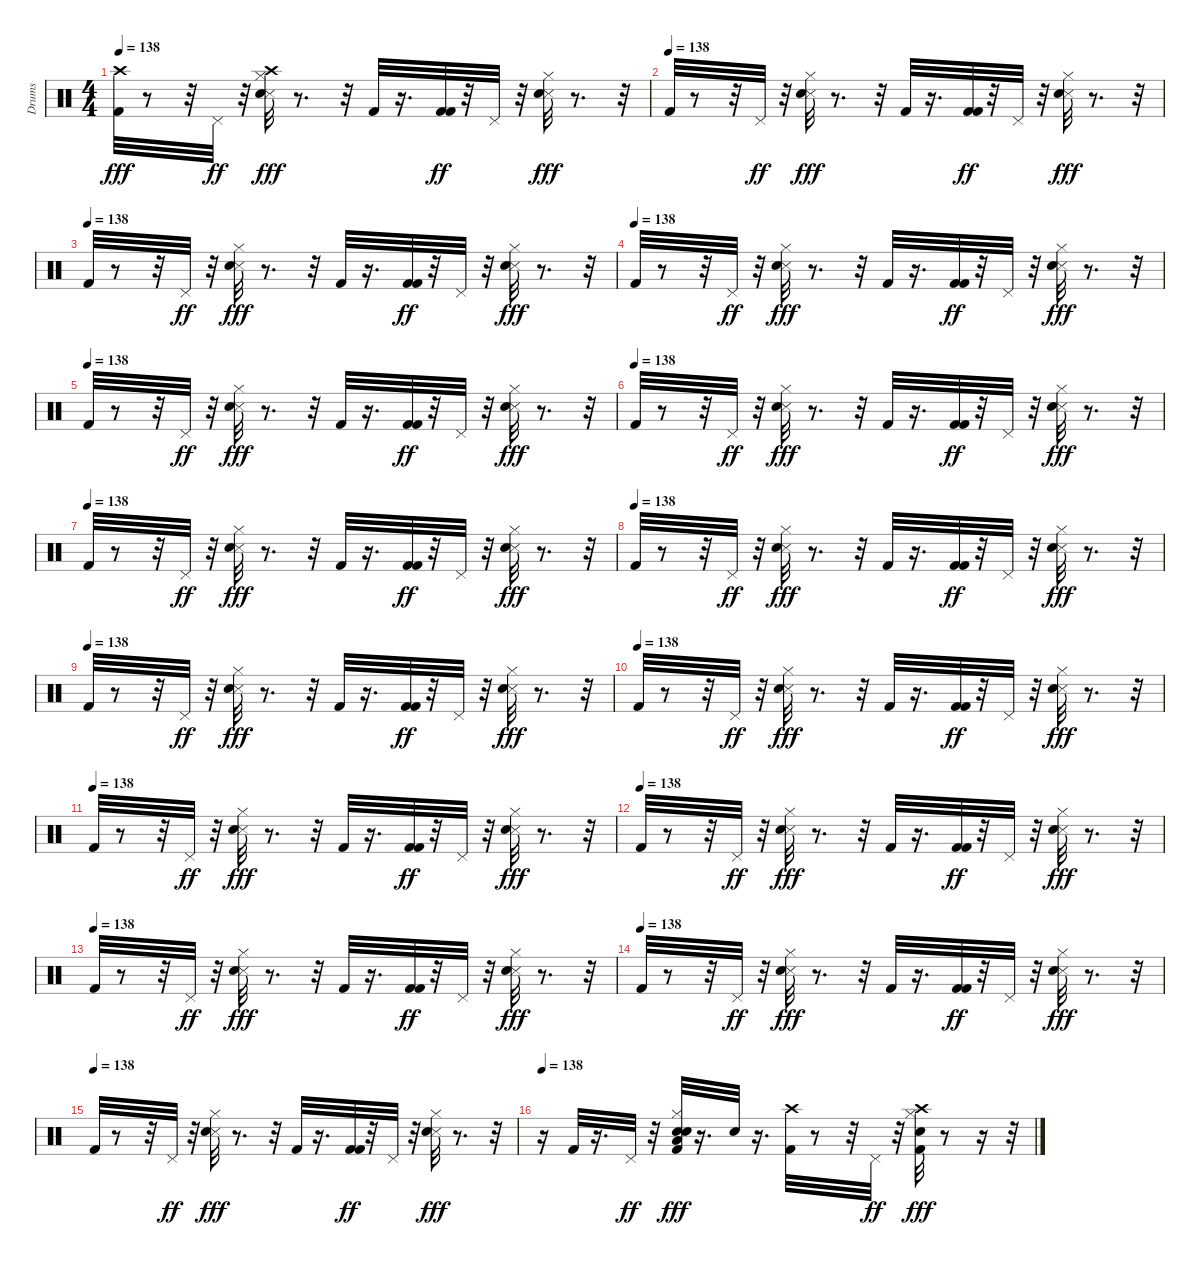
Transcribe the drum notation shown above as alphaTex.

\track ("Drums" "Drums") {instrument percussion}
\staff {score}
\articulation defaults
\ts (4 4)
\tempo 138
\clef neutral
\ks c
("Kick (hit) 2" "Crash high (hit)").32{dy fff volume 12} r.8 r.32 "Pedal Hi-Hat (hit)".32{dy ff} r.32 ("Snare (side stick) 3" "Snare (hit) 2" "Hi-Hat (closed)" "Crash high (hit)").32{dy fff} r.8{d} r.32 "Kick (hit) 2".32 r.16{d} ("Kick (hit) 2" "Kick (hit) 2").32{dy ff} r.32 "Pedal Hi-Hat (hit)".32 r.32 ("Snare (side stick) 3" "Snare (hit) 2" "Hi-Hat (closed)").32{dy fff} r.8{d} r.32 |
\tempo (138)
"Kick (hit) 2".32{volume 12} r.8 r.32 "Pedal Hi-Hat (hit)".32{dy ff} r.32 ("Snare (side stick) 3" "Snare (hit) 2" "Hi-Hat (closed)").32{dy fff} r.8{d} r.32 "Kick (hit) 2".32 r.16{d} ("Kick (hit) 2" "Kick (hit) 2").32{dy ff} r.32 "Pedal Hi-Hat (hit)".32 r.32 ("Snare (side stick) 3" "Snare (hit) 2" "Hi-Hat (closed)").32{dy fff} r.8{d} r.32 |
\tempo (138)
"Kick (hit) 2".32{volume 12} r.8 r.32 "Pedal Hi-Hat (hit)".32{dy ff} r.32 ("Snare (side stick) 3" "Snare (hit) 2" "Hi-Hat (closed)").32{dy fff} r.8{d} r.32 "Kick (hit) 2".32 r.16{d} ("Kick (hit) 2" "Kick (hit) 2").32{dy ff} r.32 "Pedal Hi-Hat (hit)".32 r.32 ("Snare (side stick) 3" "Snare (hit) 2" "Hi-Hat (closed)").32{dy fff} r.8{d} r.32 |
\tempo (138)
"Kick (hit) 2".32{volume 12} r.8 r.32 "Pedal Hi-Hat (hit)".32{dy ff} r.32 ("Snare (side stick) 3" "Snare (hit) 2" "Hi-Hat (closed)").32{dy fff} r.8{d} r.32 "Kick (hit) 2".32 r.16{d} ("Kick (hit) 2" "Kick (hit) 2").32{dy ff} r.32 "Pedal Hi-Hat (hit)".32 r.32 ("Snare (side stick) 3" "Snare (hit) 2" "Hi-Hat (closed)").32{dy fff} r.8{d} r.32 |
\tempo (138)
"Kick (hit) 2".32{volume 12} r.8 r.32 "Pedal Hi-Hat (hit)".32{dy ff} r.32 ("Snare (side stick) 3" "Snare (hit) 2" "Hi-Hat (closed)").32{dy fff} r.8{d} r.32 "Kick (hit) 2".32 r.16{d} ("Kick (hit) 2" "Kick (hit) 2").32{dy ff} r.32 "Pedal Hi-Hat (hit)".32 r.32 ("Snare (side stick) 3" "Snare (hit) 2" "Hi-Hat (closed)").32{dy fff} r.8{d} r.32 |
\tempo (138)
"Kick (hit) 2".32{volume 12} r.8 r.32 "Pedal Hi-Hat (hit)".32{dy ff} r.32 ("Snare (side stick) 3" "Snare (hit) 2" "Hi-Hat (closed)").32{dy fff} r.8{d} r.32 "Kick (hit) 2".32 r.16{d} ("Kick (hit) 2" "Kick (hit) 2").32{dy ff} r.32 "Pedal Hi-Hat (hit)".32 r.32 ("Snare (side stick) 3" "Snare (hit) 2" "Hi-Hat (closed)").32{dy fff} r.8{d} r.32 |
\tempo (138)
"Kick (hit) 2".32{volume 12} r.8 r.32 "Pedal Hi-Hat (hit)".32{dy ff} r.32 ("Snare (side stick) 3" "Snare (hit) 2" "Hi-Hat (closed)").32{dy fff} r.8{d} r.32 "Kick (hit) 2".32 r.16{d} ("Kick (hit) 2" "Kick (hit) 2").32{dy ff} r.32 "Pedal Hi-Hat (hit)".32 r.32 ("Snare (side stick) 3" "Snare (hit) 2" "Hi-Hat (closed)").32{dy fff} r.8{d} r.32 |
\tempo (138)
"Kick (hit) 2".32{volume 12} r.8 r.32 "Pedal Hi-Hat (hit)".32{dy ff} r.32 ("Snare (side stick) 3" "Snare (hit) 2" "Hi-Hat (closed)").32{dy fff} r.8{d} r.32 "Kick (hit) 2".32 r.16{d} ("Kick (hit) 2" "Kick (hit) 2").32{dy ff} r.32 "Pedal Hi-Hat (hit)".32 r.32 ("Snare (side stick) 3" "Snare (hit) 2" "Hi-Hat (closed)").32{dy fff} r.8{d} r.32 |
\tempo (138)
"Kick (hit) 2".32{volume 12} r.8 r.32 "Pedal Hi-Hat (hit)".32{dy ff} r.32 ("Snare (side stick) 3" "Snare (hit) 2" "Hi-Hat (closed)").32{dy fff} r.8{d} r.32 "Kick (hit) 2".32 r.16{d} ("Kick (hit) 2" "Kick (hit) 2").32{dy ff} r.32 "Pedal Hi-Hat (hit)".32 r.32 ("Snare (side stick) 3" "Snare (hit) 2" "Hi-Hat (closed)").32{dy fff} r.8{d} r.32 |
\tempo (138)
"Kick (hit) 2".32{volume 12} r.8 r.32 "Pedal Hi-Hat (hit)".32{dy ff} r.32 ("Snare (side stick) 3" "Snare (hit) 2" "Hi-Hat (closed)").32{dy fff} r.8{d} r.32 "Kick (hit) 2".32 r.16{d} ("Kick (hit) 2" "Kick (hit) 2").32{dy ff} r.32 "Pedal Hi-Hat (hit)".32 r.32 ("Snare (side stick) 3" "Snare (hit) 2" "Hi-Hat (closed)").32{dy fff} r.8{d} r.32 |
\tempo (138)
"Kick (hit) 2".32{volume 12} r.8 r.32 "Pedal Hi-Hat (hit)".32{dy ff} r.32 ("Snare (side stick) 3" "Snare (hit) 2" "Hi-Hat (closed)").32{dy fff} r.8{d} r.32 "Kick (hit) 2".32 r.16{d} ("Kick (hit) 2" "Kick (hit) 2").32{dy ff} r.32 "Pedal Hi-Hat (hit)".32 r.32 ("Snare (side stick) 3" "Snare (hit) 2" "Hi-Hat (closed)").32{dy fff} r.8{d} r.32 |
\tempo (138)
"Kick (hit) 2".32{volume 12} r.8 r.32 "Pedal Hi-Hat (hit)".32{dy ff} r.32 ("Snare (side stick) 3" "Snare (hit) 2" "Hi-Hat (closed)").32{dy fff} r.8{d} r.32 "Kick (hit) 2".32 r.16{d} ("Kick (hit) 2" "Kick (hit) 2").32{dy ff} r.32 "Pedal Hi-Hat (hit)".32 r.32 ("Snare (side stick) 3" "Snare (hit) 2" "Hi-Hat (closed)").32{dy fff} r.8{d} r.32 |
\tempo (138)
"Kick (hit) 2".32{volume 12} r.8 r.32 "Pedal Hi-Hat (hit)".32{dy ff} r.32 ("Snare (side stick) 3" "Snare (hit) 2" "Hi-Hat (closed)").32{dy fff} r.8{d} r.32 "Kick (hit) 2".32 r.16{d} ("Kick (hit) 2" "Kick (hit) 2").32{dy ff} r.32 "Pedal Hi-Hat (hit)".32 r.32 ("Snare (side stick) 3" "Snare (hit) 2" "Hi-Hat (closed)").32{dy fff} r.8{d} r.32 |
\tempo (138)
"Kick (hit) 2".32{volume 12} r.8 r.32 "Pedal Hi-Hat (hit)".32{dy ff} r.32 ("Snare (side stick) 3" "Snare (hit) 2" "Hi-Hat (closed)").32{dy fff} r.8{d} r.32 "Kick (hit) 2".32 r.16{d} ("Kick (hit) 2" "Kick (hit) 2").32{dy ff} r.32 "Pedal Hi-Hat (hit)".32 r.32 ("Snare (side stick) 3" "Snare (hit) 2" "Hi-Hat (closed)").32{dy fff} r.8{d} r.32 |
\tempo (138)
"Kick (hit) 2".32{volume 12} r.8 r.32 "Pedal Hi-Hat (hit)".32{dy ff} r.32 ("Snare (side stick) 3" "Snare (hit) 2" "Hi-Hat (closed)").32{dy fff} r.8{d} r.32 "Kick (hit) 2".32 r.16{d} ("Kick (hit) 2" "Kick (hit) 2").32{dy ff} r.32 "Pedal Hi-Hat (hit)".32 r.32 ("Snare (side stick) 3" "Snare (hit) 2" "Hi-Hat (closed)").32{dy fff} r.8{d} r.32 |
\tempo 138
r.16 "Kick (hit) 2".32 r.16{d} "Pedal Hi-Hat (hit)".32{dy ff} r.32 ("Kick (hit) 2" "Snare (hit) 2" "Hand Clap (hit)" "Low Floor Tom (hit)" "Hi-Hat (closed)").32{dy fff} r.16{d} "Hand Clap (hit)".32 r.16{d} ("Kick (hit) 2" "Crash high (hit)").32 r.8 r.32 "Pedal Hi-Hat (hit)".32{dy ff} r.32 ("Kick (hit) 2" "Hi-Hat (closed)" "Snare (hit) 2" "Crash high (hit)").32{dy fff} r.8 r.16 r.32
